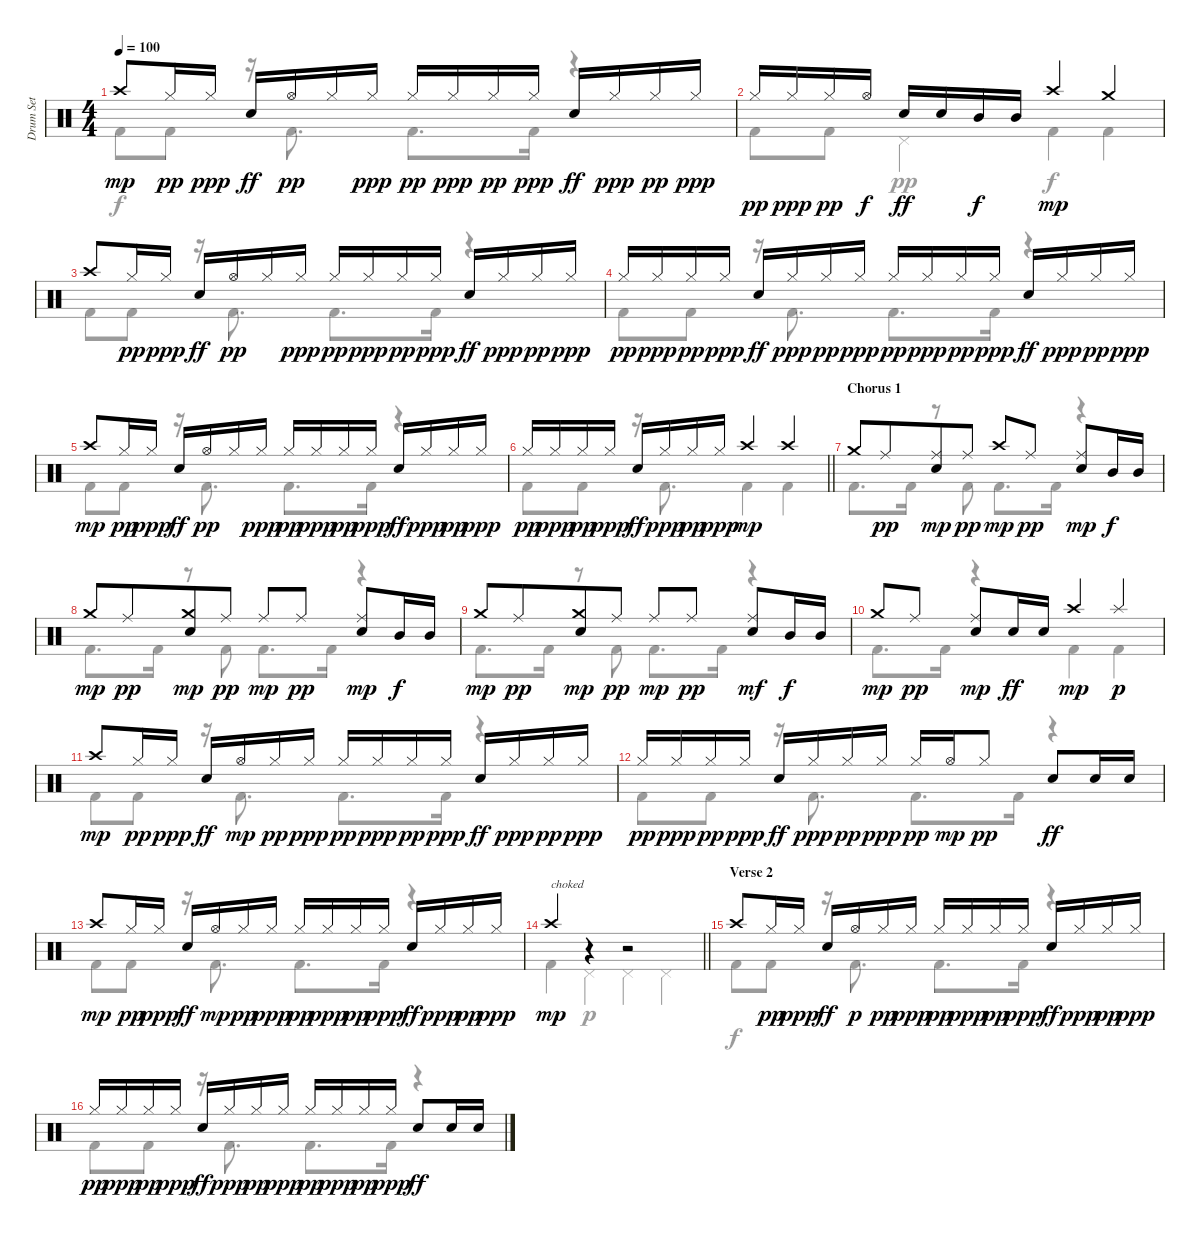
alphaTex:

\track ("Drum Set" "Drum Set") {instrument percussion}
\staff {score}
\articulation defaults
\voice
\ts (4 4)
\tempo 100
\clef neutral
\ks c "Crash high (hit)".8{dy mp} "Hi-Hat (closed)".16{dy pp} "Hi-Hat (closed)".16{dy ppp} "Electric Snare (hit)".16{dy ff} "Hi-Hat (open)".16{dy pp} "Hi-Hat (closed)".16 "Hi-Hat (closed)".16{dy ppp} "Hi-Hat (closed)".16{dy pp} "Hi-Hat (closed)".16{dy ppp} "Hi-Hat (closed)".16{dy pp} "Hi-Hat (closed)".16{dy ppp} "Electric Snare (hit)".16{dy ff} "Hi-Hat (closed)".16{dy ppp} "Hi-Hat (closed)".16{dy pp} "Hi-Hat (closed)".16{dy ppp}
|
"Hi-Hat (closed)".16{dy pp} "Hi-Hat (closed)".16{dy ppp} "Hi-Hat (closed)".16{dy pp} "Hi-Hat (open)".16{dy f} "Electric Snare (hit)".16{dy ff} "Electric Snare (hit)".16 "Mid Tom (hit)".16{dy f} "Mid Tom (hit)".16 "Crash high (hit)".4{dy mp} "Crash medium (hit)".4 |
"Crash high (hit)".8 "Hi-Hat (closed)".16{dy pp} "Hi-Hat (closed)".16{dy ppp} "Electric Snare (hit)".16{dy ff} "Hi-Hat (open)".16{dy pp} "Hi-Hat (closed)".16 "Hi-Hat (closed)".16{dy ppp} "Hi-Hat (closed)".16{dy pp} "Hi-Hat (closed)".16{dy ppp} "Hi-Hat (closed)".16{dy pp} "Hi-Hat (closed)".16{dy ppp} "Electric Snare (hit)".16{dy ff} "Hi-Hat (closed)".16{dy ppp} "Hi-Hat (closed)".16{dy pp} "Hi-Hat (closed)".16{dy ppp} |
"Hi-Hat (closed)".16{dy pp} "Hi-Hat (closed)".16{dy ppp} "Hi-Hat (closed)".16{dy pp} "Hi-Hat (closed)".16{dy ppp} "Electric Snare (hit)".16{dy ff} "Hi-Hat (closed)".16{dy ppp} "Hi-Hat (closed)".16{dy pp} "Hi-Hat (closed)".16{dy ppp} "Hi-Hat (closed)".16{dy pp} "Hi-Hat (closed)".16{dy ppp} "Hi-Hat (closed)".16{dy pp} "Hi-Hat (closed)".16{dy ppp} "Electric Snare (hit)".16{dy ff} "Hi-Hat (closed)".16{dy ppp} "Hi-Hat (closed)".16{dy pp} "Hi-Hat (closed)".16{dy ppp} |
"Crash high (hit)".8{dy mp} "Hi-Hat (closed)".16{dy pp} "Hi-Hat (closed)".16{dy ppp} "Electric Snare (hit)".16{dy ff} "Hi-Hat (open)".16{dy pp} "Hi-Hat (closed)".16 "Hi-Hat (closed)".16{dy ppp} "Hi-Hat (closed)".16{dy pp} "Hi-Hat (closed)".16{dy ppp} "Hi-Hat (closed)".16{dy pp} "Hi-Hat (closed)".16{dy ppp} "Electric Snare (hit)".16{dy ff} "Hi-Hat (closed)".16{dy ppp} "Hi-Hat (closed)".16{dy pp} "Hi-Hat (closed)".16{dy ppp} |
\barLineRight lightlight "Hi-Hat (closed)".16{dy pp} "Hi-Hat (closed)".16{dy ppp} "Hi-Hat (closed)".16{dy pp} "Hi-Hat (closed)".16{dy ppp} "Electric Snare (hit)".16{dy ff} "Hi-Hat (closed)".16{dy ppp} "Hi-Hat (closed)".16{dy pp} "Hi-Hat (closed)".16{dy ppp} "Crash high (hit)".4{dy mp} "Crash high (hit)".4
|
\section ("" "Chorus 1")
"Crash medium (hit)".8 "Ride (middle)".8{dy pp beam merge} ("Electric Snare (hit)" "Ride (middle)").8{dy mp} "Ride (middle)".8{dy pp} "Crash high (hit)".8{dy mp} "Ride (middle)".8{dy pp} ("Electric Snare (hit)" "Ride (middle)").8{dy mp} "Mid Tom (hit)".16{dy f} "Mid Tom (hit)".16 |
"Crash medium (hit)".8{dy mp} "Ride (middle)".8{dy pp beam merge} ("Electric Snare (hit)" "Crash medium (hit)").8{dy mp} "Ride (middle)".8{dy pp} "Ride (middle)".8{dy mp} "Ride (middle)".8{dy pp} ("Electric Snare (hit)" "Ride (middle)").8{dy mp} "Mid Tom (hit)".16{dy f} "Mid Tom (hit)".16 |
"Crash medium (hit)".8{dy mp} "Ride (middle)".8{dy pp beam merge} ("Electric Snare (hit)" "Crash medium (hit)").8{dy mp} "Ride (middle)".8{dy pp} "Ride (middle)".8{dy mp} "Ride (middle)".8{dy pp} ("Electric Snare (hit)" "Ride (middle)").8{dy mf} "Mid Tom (hit)".16{dy f} "Mid Tom (hit)".16 |
"Crash medium (hit)".8{dy mp} "Ride (middle)".8{dy pp} ("Electric Snare (hit)" "Ride (middle)").8{dy mp} "Electric Snare (hit)".16{dy ff} "Electric Snare (hit)".16 "Crash high (hit)".4{dy mp} "Splash (hit)".4{dy p} |
"Crash high (hit)".8{dy mp} "Hi-Hat (closed)".16{dy pp} "Hi-Hat (closed)".16{dy ppp} "Electric Snare (hit)".16{dy ff} "Hi-Hat (open)".16{dy mp} "Hi-Hat (closed)".16{dy pp} "Hi-Hat (closed)".16{dy ppp} "Hi-Hat (closed)".16{dy pp} "Hi-Hat (closed)".16{dy ppp} "Hi-Hat (closed)".16{dy pp} "Hi-Hat (closed)".16{dy ppp} "Electric Snare (hit)".16{dy ff} "Hi-Hat (closed)".16{dy ppp} "Hi-Hat (closed)".16{dy pp} "Hi-Hat (closed)".16{dy ppp} |
"Hi-Hat (closed)".16{dy pp} "Hi-Hat (closed)".16{dy ppp} "Hi-Hat (closed)".16{dy pp} "Hi-Hat (closed)".16{dy ppp} "Electric Snare (hit)".16{dy ff} "Hi-Hat (closed)".16{dy ppp} "Hi-Hat (closed)".16{dy pp} "Hi-Hat (closed)".16{dy ppp} "Hi-Hat (closed)".16{dy pp} "Hi-Hat (open)".16{dy mp} "Hi-Hat (closed)".8{dy pp} "Electric Snare (hit)".8{dy ff} "Electric Snare (hit)".16 "Electric Snare (hit)".16 |
"Crash high (hit)".8{dy mp} "Hi-Hat (closed)".16{dy pp} "Hi-Hat (closed)".16{dy ppp} "Electric Snare (hit)".16{dy ff} "Hi-Hat (open)".16{dy mp} "Hi-Hat (closed)".16{dy pp} "Hi-Hat (closed)".16{dy ppp} "Hi-Hat (closed)".16{dy pp} "Hi-Hat (closed)".16{dy ppp} "Hi-Hat (closed)".16{dy pp} "Hi-Hat (closed)".16{dy ppp} "Electric Snare (hit)".16{dy ff} "Hi-Hat (closed)".16{dy ppp} "Hi-Hat (closed)".16{dy pp} "Hi-Hat (closed)".16{dy ppp} |
\barLineRight lightlight "Crash high (hit)".4{txt "choked" dy mp}
r.4 r.2 |
\section ("" "Verse 2")
"Crash high (hit)".8 "Hi-Hat (closed)".16{dy pp} "Hi-Hat (closed)".16{dy ppp} "Electric Snare (hit)".16{dy ff} "Hi-Hat (open)".16{dy p} "Hi-Hat (closed)".16{dy pp} "Hi-Hat (closed)".16{dy ppp} "Hi-Hat (closed)".16{dy pp} "Hi-Hat (closed)".16{dy ppp} "Hi-Hat (closed)".16{dy pp} "Hi-Hat (closed)".16{dy ppp} "Electric Snare (hit)".16{dy ff} "Hi-Hat (closed)".16{dy ppp} "Hi-Hat (closed)".16{dy pp} "Hi-Hat (closed)".16{dy ppp} |
"Hi-Hat (closed)".16{dy pp} "Hi-Hat (closed)".16{dy ppp} "Hi-Hat (closed)".16{dy pp} "Hi-Hat (closed)".16{dy ppp} "Electric Snare (hit)".16{dy ff} "Hi-Hat (closed)".16{dy ppp} "Hi-Hat (closed)".16{dy pp} "Hi-Hat (closed)".16{dy ppp} "Hi-Hat (closed)".16{dy pp} "Hi-Hat (closed)".16{dy ppp} "Hi-Hat (closed)".16{dy pp} "Hi-Hat (closed)".16{dy ppp} "Electric Snare (hit)".8{dy ff} "Electric Snare (hit)".16 "Electric Snare (hit)".16
\voice
\clef neutral
\ottava regular
\simile none
\ks c "Kick (hit) 2".8{dy f} "Kick (hit) 2".8
r.16 "Kick (hit) 2".8{d} "Kick (hit) 2".8{d} "Kick (hit) 2".16 r.4 |
"Kick (hit) 2".8 "Kick (hit) 2".8 "Pedal Hi-Hat (hit)".4{dy pp} "Kick (hit) 2".4{dy f} "Kick (hit) 2".4 |
"Kick (hit) 2".8 "Kick (hit) 2".8 r.16 "Kick (hit) 2".8{d} "Kick (hit) 2".8{d} "Kick (hit) 2".16 r.4 |
"Kick (hit) 2".8 "Kick (hit) 2".8 r.16 "Kick (hit) 2".8{d} "Kick (hit) 2".8{d} "Kick (hit) 2".16 r.4 |
"Kick (hit) 2".8 "Kick (hit) 2".8 r.16 "Kick (hit) 2".8{d} "Kick (hit) 2".8{d} "Kick (hit) 2".16 r.4 |
\barLineRight lightlight "Kick (hit) 2".8 "Kick (hit) 2".8
r.16 "Kick (hit) 2".8{d} "Kick (hit) 2".4 "Kick (hit) 2".4 |
"Kick (hit) 2".8{d} "Kick (hit) 2".16 r.8 "Kick (hit) 2".8 "Kick (hit) 2".8{d} "Kick (hit) 2".16 r.4 |
"Kick (hit) 2".8{d} "Kick (hit) 2".16 r.8 "Kick (hit) 2".8 "Kick (hit) 2".8{d} "Kick (hit) 2".16 r.4 |
"Kick (hit) 2".8{d} "Kick (hit) 2".16 r.8 "Kick (hit) 2".8 "Kick (hit) 2".8{d} "Kick (hit) 2".16 r.4 |
"Kick (hit) 2".8{d} "Kick (hit) 2".16 r.4 "Kick (hit) 2".4 "Kick (hit) 2".4 |
"Kick (hit) 2".8 "Kick (hit) 2".8 r.16 "Kick (hit) 2".8{d} "Kick (hit) 2".8{d} "Kick (hit) 2".16 r.4 |
"Kick (hit) 2".8 "Kick (hit) 2".8 r.16 "Kick (hit) 2".8{d} "Kick (hit) 2".8{d} "Kick (hit) 2".16 r.4 |
"Kick (hit) 2".8 "Kick (hit) 2".8 r.16 "Kick (hit) 2".8{d} "Kick (hit) 2".8{d} "Kick (hit) 2".16 r.4 |
\barLineRight lightlight "Kick (hit) 2".4 "Pedal Hi-Hat (hit)".4{dy p} "Pedal Hi-Hat (hit)".4 "Pedal Hi-Hat (hit)".4
|
"Kick (hit) 2".8{dy f} "Kick (hit) 2".8 r.16 "Kick (hit) 2".8{d} "Kick (hit) 2".8{d} "Kick (hit) 2".16 r.4 |
"Kick (hit) 2".8 "Kick (hit) 2".8 r.16 "Kick (hit) 2".8{d} "Kick (hit) 2".8{d} "Kick (hit) 2".16 r.4
